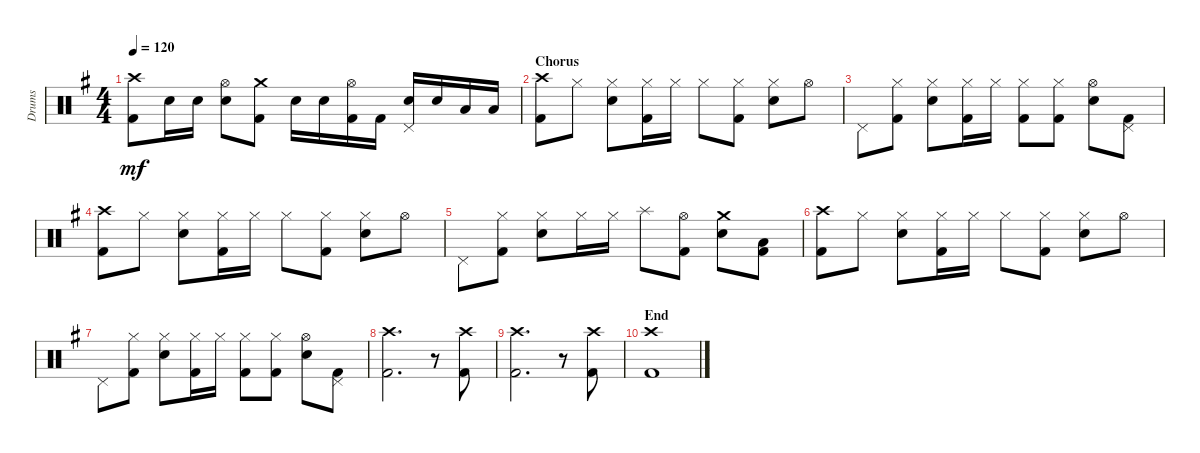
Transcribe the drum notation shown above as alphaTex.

\track ("Drums" "Drums") {instrument percussion}
\staff {score}
\articulation defaults
\ts (4 4)
\tempo 120
\clef neutral
\ks g
("Kick (hit) 2" "Crash high (hit)").8{dy mf} "Snare (hit) 2".16 "Snare (hit) 2".16 ("Snare (hit) 2" "Hi-Hat (open)").8 ("Kick (hit) 2" "Crash medium (hit)").8 "Snare (hit) 2".16 "Snare (hit) 2".16 ("Kick (hit) 2" "Hi-Hat (open)").16 "Kick (hit) 2".16 ("Snare (hit) 2" "Pedal Hi-Hat (hit)").16 "Snare (hit) 2".16 "Low Tom (hit)".16 "Low Tom (hit)".16 |
\section ("" "Chorus")
("Kick (hit) 2" "Crash high (hit)").8 "Hi-Hat (closed)".8 ("Snare (hit) 2" "Hi-Hat (closed)").8 ("Kick (hit) 2" "Hi-Hat (closed)").16 "Hi-Hat (closed)".16 "Hi-Hat (closed)".8 ("Kick (hit) 2" "Hi-Hat (closed)").8 ("Snare (hit) 2" "Hi-Hat (closed)").8 "Hi-Hat (open)".8 |
"Pedal Hi-Hat (hit)".8 ("Kick (hit) 2" "Hi-Hat (closed)").8 ("Snare (hit) 2" "Hi-Hat (closed)").8 ("Kick (hit) 2" "Hi-Hat (closed)").16 "Hi-Hat (closed)".16 ("Kick (hit) 2" "Hi-Hat (closed)").8 ("Kick (hit) 2" "Hi-Hat (closed)").8 ("Snare (hit) 2" "Hi-Hat (open)").8 ("Kick (hit) 2" "Pedal Hi-Hat (hit)").8 |
("Kick (hit) 2" "Crash high (hit)").8 "Hi-Hat (closed)".8 ("Snare (hit) 2" "Hi-Hat (closed)").8 ("Kick (hit) 2" "Hi-Hat (closed)").16 "Hi-Hat (closed)".16 "Hi-Hat (closed)".8 ("Kick (hit) 2" "Hi-Hat (closed)").8 ("Snare (hit) 2" "Hi-Hat (closed)").8 "Hi-Hat (open)".8 |
"Pedal Hi-Hat (hit)".8 ("Kick (hit) 2" "Hi-Hat (closed)").8 ("Snare (hit) 2" "Hi-Hat (closed)").8 "Hi-Hat (closed)".16 "Hi-Hat (closed)".16 "Splash (hit)".8 ("Kick (hit) 2" "Hi-Hat (open)").8 ("Snare (hit) 2" "Crash medium (hit)").8 ("Kick (hit) 2" "Low Tom (hit)").8 |
("Kick (hit) 2" "Crash high (hit)").8 "Hi-Hat (closed)".8 ("Snare (hit) 2" "Hi-Hat (closed)").8 ("Kick (hit) 2" "Hi-Hat (closed)").16 "Hi-Hat (closed)".16 "Hi-Hat (closed)".8 ("Kick (hit) 2" "Hi-Hat (closed)").8 ("Snare (hit) 2" "Hi-Hat (closed)").8 "Hi-Hat (open)".8 |
"Pedal Hi-Hat (hit)".8 ("Kick (hit) 2" "Hi-Hat (closed)").8 ("Snare (hit) 2" "Hi-Hat (closed)").8 ("Kick (hit) 2" "Hi-Hat (closed)").16 "Hi-Hat (closed)".16 ("Kick (hit) 2" "Hi-Hat (closed)").8 ("Kick (hit) 2" "Hi-Hat (closed)").8 ("Snare (hit) 2" "Hi-Hat (open)").8 ("Kick (hit) 2" "Pedal Hi-Hat (hit)").8 |
("Crash high (hit)" "Kick (hit) 2").2{d} r.8 ("Crash high (hit)" "Kick (hit) 2").8 |
("Crash high (hit)" "Kick (hit) 2").2{d} r.8 ("Crash high (hit)" "Kick (hit) 2").8 |
\section ("" "End")
("Crash high (hit)" "Kick (hit) 2").1
